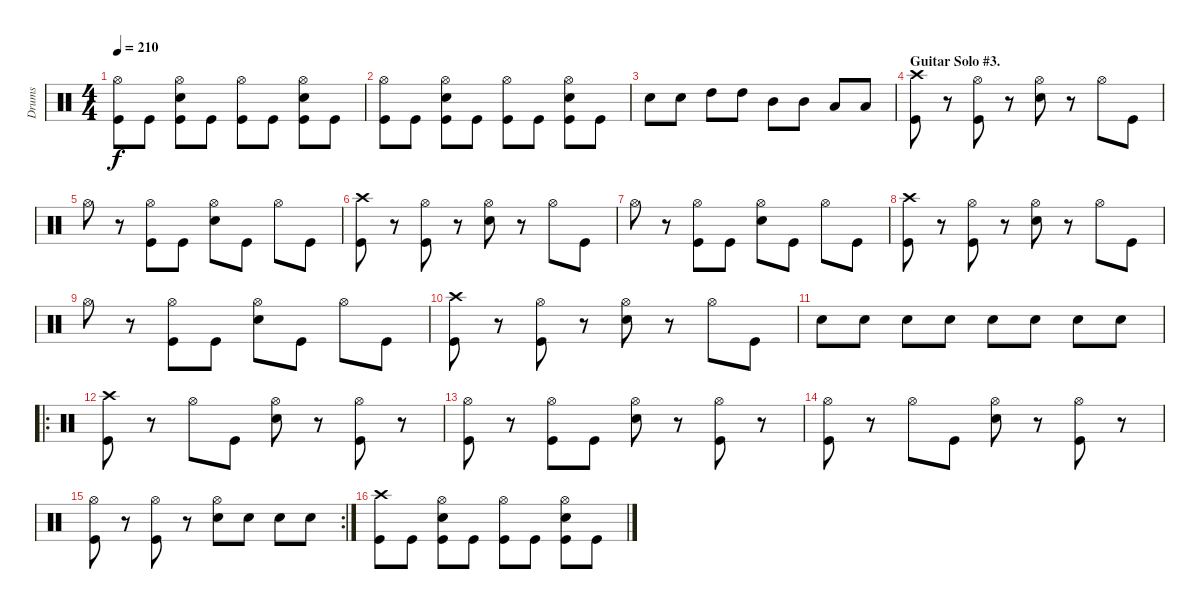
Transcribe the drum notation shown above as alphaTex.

\track ("Drums" "Drums") {instrument percussion}
\staff {score}
\articulation defaults
\ts (4 4)
\tempo 210
\clef neutral
\ks c
("Hi-Hat (open)" "Kick (hit)").8{dy f} "Kick (hit)".8 ("Hi-Hat (open)" "Electric Snare (hit)" "Kick (hit)").8 "Kick (hit)".8 ("Hi-Hat (open)" "Kick (hit)").8 "Kick (hit)".8 ("Hi-Hat (open)" "Electric Snare (hit)" "Kick (hit)").8 "Kick (hit)".8 |
("Hi-Hat (open)" "Kick (hit)").8 "Kick (hit)".8 ("Hi-Hat (open)" "Electric Snare (hit)" "Kick (hit)").8 "Kick (hit)".8 ("Hi-Hat (open)" "Kick (hit)").8 "Kick (hit)".8 ("Hi-Hat (open)" "Electric Snare (hit)" "Kick (hit)").8 "Kick (hit)".8 |
"Electric Snare (hit)".8 "Electric Snare (hit)".8 "High Tom (hit)".8 "High Tom (hit)".8 "Mid Tom (hit)".8 "Mid Tom (hit)".8 "Low Tom (hit)".8 "Low Tom (hit)".8 |
\section ("" "Guitar Solo #3.")
("Crash high (hit)" "Kick (hit)").8 r.8 ("Hi-Hat (open)" "Kick (hit)").8 r.8 ("Hi-Hat (open)" "Electric Snare (hit)").8 r.8 "Hi-Hat (open)".8 "Kick (hit)".8 |
"Hi-Hat (open)".8 r.8 ("Hi-Hat (open)" "Kick (hit)").8 "Kick (hit)".8 ("Hi-Hat (open)" "Electric Snare (hit)").8 "Kick (hit)".8 "Hi-Hat (open)".8 "Kick (hit)".8 |
("Crash high (hit)" "Kick (hit)").8 r.8 ("Hi-Hat (open)" "Kick (hit)").8 r.8 ("Hi-Hat (open)" "Electric Snare (hit)").8 r.8 "Hi-Hat (open)".8 "Kick (hit)".8 |
"Hi-Hat (open)".8 r.8 ("Hi-Hat (open)" "Kick (hit)").8 "Kick (hit)".8 ("Hi-Hat (open)" "Electric Snare (hit)").8 "Kick (hit)".8 "Hi-Hat (open)".8 "Kick (hit)".8 |
("Crash high (hit)" "Kick (hit)").8 r.8 ("Hi-Hat (open)" "Kick (hit)").8 r.8 ("Hi-Hat (open)" "Electric Snare (hit)").8 r.8 "Hi-Hat (open)".8 "Kick (hit)".8 |
"Hi-Hat (open)".8 r.8 ("Hi-Hat (open)" "Kick (hit)").8 "Kick (hit)".8 ("Hi-Hat (open)" "Electric Snare (hit)").8 "Kick (hit)".8 "Hi-Hat (open)".8 "Kick (hit)".8 |
("Crash high (hit)" "Kick (hit)").8 r.8 ("Hi-Hat (open)" "Kick (hit)").8 r.8 ("Hi-Hat (open)" "Electric Snare (hit)").8 r.8 "Hi-Hat (open)".8 "Kick (hit)".8 |
"Electric Snare (hit)".8 "Electric Snare (hit)".8 "Electric Snare (hit)".8 "Electric Snare (hit)".8 "Electric Snare (hit)".8 "Electric Snare (hit)".8 "Electric Snare (hit)".8 "Electric Snare (hit)".8 |
\ro
("Crash high (hit)" "Kick (hit)").8 r.8 "Hi-Hat (open)".8 "Kick (hit)".8 ("Hi-Hat (open)" "Electric Snare (hit)").8 r.8 ("Hi-Hat (open)" "Kick (hit)").8 r.8 |
("Hi-Hat (open)" "Kick (hit)").8 r.8 ("Hi-Hat (open)" "Kick (hit)").8 "Kick (hit)".8 ("Hi-Hat (open)" "Electric Snare (hit)").8 r.8 ("Hi-Hat (open)" "Kick (hit)").8 r.8 |
("Hi-Hat (open)" "Kick (hit)").8 r.8 "Hi-Hat (open)".8 "Kick (hit)".8 ("Hi-Hat (open)" "Electric Snare (hit)").8 r.8 ("Hi-Hat (open)" "Kick (hit)").8 r.8 |
\rc 2
("Hi-Hat (open)" "Kick (hit)").8 r.8 ("Hi-Hat (open)" "Kick (hit)").8 r.8 ("Hi-Hat (open)" "Electric Snare (hit)").8 "Electric Snare (hit)".8 "Electric Snare (hit)".8 "Electric Snare (hit)".8 |
("Crash high (hit)" "Kick (hit)").8 "Kick (hit)".8 ("Hi-Hat (open)" "Electric Snare (hit)" "Kick (hit)").8 "Kick (hit)".8 ("Hi-Hat (open)" "Kick (hit)").8 "Kick (hit)".8 ("Hi-Hat (open)" "Electric Snare (hit)" "Kick (hit)").8 "Kick (hit)".8
